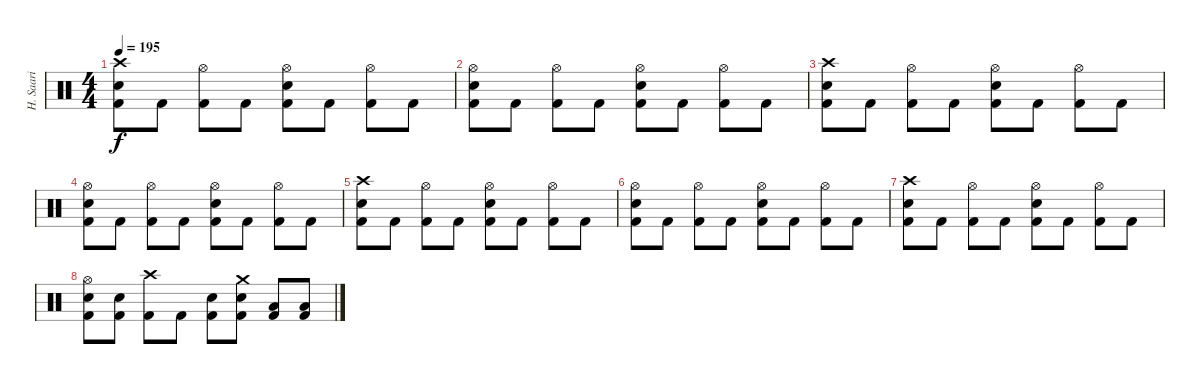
\track ("H. Saari" "H. Saari") {instrument percussion}
\staff {score}
\articulation defaults
\ts (4 4)
\tempo 195
\clef neutral
\ks c
("Crash high (hit)" "Electric Snare (hit)" "Kick (hit) 2").8{dy f} "Kick (hit) 2".8 ("Hi-Hat (open)" "Kick (hit) 2").8 "Kick (hit) 2".8 ("Hi-Hat (open)" "Electric Snare (hit)" "Kick (hit) 2").8 "Kick (hit) 2".8 ("Hi-Hat (open)" "Kick (hit) 2").8 "Kick (hit) 2".8 |
("Hi-Hat (open)" "Electric Snare (hit)" "Kick (hit) 2").8 "Kick (hit) 2".8 ("Hi-Hat (open)" "Kick (hit) 2").8 "Kick (hit) 2".8 ("Hi-Hat (open)" "Electric Snare (hit)" "Kick (hit) 2").8 "Kick (hit) 2".8 ("Hi-Hat (open)" "Kick (hit) 2").8 "Kick (hit) 2".8 |
("Crash high (hit)" "Electric Snare (hit)" "Kick (hit) 2").8 "Kick (hit) 2".8 ("Hi-Hat (open)" "Kick (hit) 2").8 "Kick (hit) 2".8 ("Hi-Hat (open)" "Electric Snare (hit)" "Kick (hit) 2").8 "Kick (hit) 2".8 ("Hi-Hat (open)" "Kick (hit) 2").8 "Kick (hit) 2".8 |
("Hi-Hat (open)" "Electric Snare (hit)" "Kick (hit) 2").8 "Kick (hit) 2".8 ("Hi-Hat (open)" "Kick (hit) 2").8 "Kick (hit) 2".8 ("Hi-Hat (open)" "Electric Snare (hit)" "Kick (hit) 2").8 "Kick (hit) 2".8 ("Hi-Hat (open)" "Kick (hit) 2").8 "Kick (hit) 2".8 |
("Crash high (hit)" "Electric Snare (hit)" "Kick (hit) 2").8 "Kick (hit) 2".8 ("Hi-Hat (open)" "Kick (hit) 2").8 "Kick (hit) 2".8 ("Hi-Hat (open)" "Electric Snare (hit)" "Kick (hit) 2").8 "Kick (hit) 2".8 ("Hi-Hat (open)" "Kick (hit) 2").8 "Kick (hit) 2".8 |
("Hi-Hat (open)" "Electric Snare (hit)" "Kick (hit) 2").8 "Kick (hit) 2".8 ("Hi-Hat (open)" "Kick (hit) 2").8 "Kick (hit) 2".8 ("Hi-Hat (open)" "Electric Snare (hit)" "Kick (hit) 2").8 "Kick (hit) 2".8 ("Hi-Hat (open)" "Kick (hit) 2").8 "Kick (hit) 2".8 |
("Crash high (hit)" "Electric Snare (hit)" "Kick (hit) 2").8 "Kick (hit) 2".8 ("Hi-Hat (open)" "Kick (hit) 2").8 "Kick (hit) 2".8 ("Hi-Hat (open)" "Electric Snare (hit)" "Kick (hit) 2").8 "Kick (hit) 2".8 ("Hi-Hat (open)" "Kick (hit) 2").8 "Kick (hit) 2".8 |
("Hi-Hat (open)" "Electric Snare (hit)" "Kick (hit) 2").8 ("Electric Snare (hit)" "Kick (hit) 2").8 ("Crash high (hit)" "Kick (hit) 2").8 "Kick (hit) 2".8 ("Electric Snare (hit)" "Kick (hit) 2").8 ("Crash medium (hit)" "Electric Snare (hit)" "Kick (hit) 2").8 ("Low Tom (hit)" "Kick (hit) 2").8 ("Low Tom (hit)" "Kick (hit) 2").8
